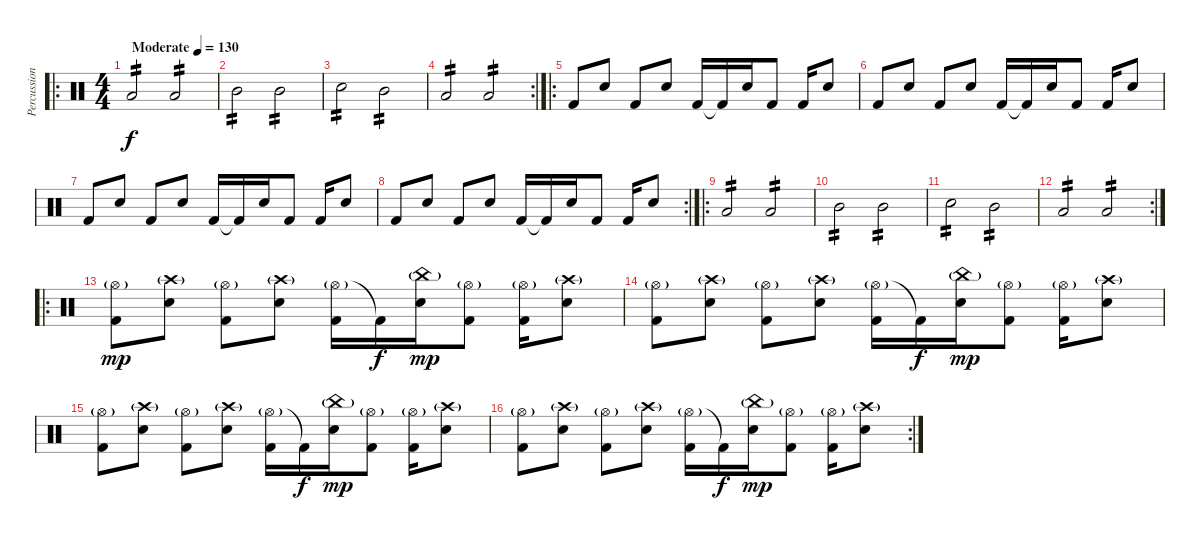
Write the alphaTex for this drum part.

\track ("Percussion" "Percussion") {instrument percussion}
\staff {score}
\articulation defaults
\ro
\ts (4 4)
\tempo (130 "Moderate")
\clef neutral
\ks c "Low Floor Tom (hit)".2{tp 2 dy f} "Low Tom (hit)".2{tp 2}
|
"Mid Tom (hit)".2{tp 2} "Mid Tom (hit)".2{tp 2} |
"Snare (hit) 2".2{tp 2} "Mid Tom (hit)".2{tp 2} |
\rc 2 "Low Tom (hit)".2{tp 2} "Low Floor Tom (hit)".2{tp 2}
|
\ro "Kick (hit) 2".8 "Electric Snare (hit)".8 "Kick (hit) 2".8 "Electric Snare (hit)".8 "Kick (hit) 2".16 "Kick (hit) 2"{t}.16 "Electric Snare (hit)".16 "Kick (hit) 2".8 "Kick (hit) 2".16 "Electric Snare (hit)".8
|
"Kick (hit) 2".8 "Electric Snare (hit)".8 "Kick (hit) 2".8 "Electric Snare (hit)".8 "Kick (hit) 2".16 "Kick (hit) 2"{t}.16 "Electric Snare (hit)".16 "Kick (hit) 2".8 "Kick (hit) 2".16 "Electric Snare (hit)".8 |
"Kick (hit) 2".8 "Electric Snare (hit)".8 "Kick (hit) 2".8 "Electric Snare (hit)".8 "Kick (hit) 2".16 "Kick (hit) 2"{t}.16 "Electric Snare (hit)".16 "Kick (hit) 2".8 "Kick (hit) 2".16 "Electric Snare (hit)".8 |
\rc 2 "Kick (hit) 2".8 "Electric Snare (hit)".8 "Kick (hit) 2".8 "Electric Snare (hit)".8 "Kick (hit) 2".16 "Kick (hit) 2"{t}.16 "Electric Snare (hit)".16 "Kick (hit) 2".8 "Kick (hit) 2".16 "Electric Snare (hit)".8
|
\ro "Low Floor Tom (hit)".2{tp 2} "Low Tom (hit)".2{tp 2}
|
"Mid Tom (hit)".2{tp 2} "Mid Tom (hit)".2{tp 2} |
"Snare (hit) 2".2{tp 2} "Mid Tom (hit)".2{tp 2} |
\rc 2 "Low Tom (hit)".2{tp 2} "Low Floor Tom (hit)".2{tp 2}
|
\ro
("Hi-Hat (open)"{g} "Kick (hit) 2").8{dy mp} ("Crash high (hit)"{g} "Electric Snare (hit)").8 ("Hi-Hat (open)"{g} "Kick (hit) 2").8 ("Crash high (hit)"{g} "Electric Snare (hit)").8 ("Hi-Hat (open)"{g} "Kick (hit) 2").16 "Kick (hit) 2"{t}.16{dy f} ("China (hit)"{g} "Electric Snare (hit)").16{dy mp} ("Hi-Hat (open)"{g} "Kick (hit) 2").8 ("Hi-Hat (open)"{g} "Kick (hit) 2").16 ("Crash high (hit)"{g} "Electric Snare (hit)").8 |
("Hi-Hat (open)"{g} "Kick (hit) 2").8 ("Crash high (hit)"{g} "Electric Snare (hit)").8 ("Hi-Hat (open)"{g} "Kick (hit) 2").8 ("Crash high (hit)"{g} "Electric Snare (hit)").8 ("Hi-Hat (open)"{g} "Kick (hit) 2").16 "Kick (hit) 2"{t}.16{dy f} ("China (hit)"{g} "Electric Snare (hit)").16{dy mp} ("Hi-Hat (open)"{g} "Kick (hit) 2").8 ("Hi-Hat (open)"{g} "Kick (hit) 2").16 ("Crash high (hit)"{g} "Electric Snare (hit)").8 |
("Hi-Hat (open)"{g} "Kick (hit) 2").8 ("Crash high (hit)"{g} "Electric Snare (hit)").8 ("Hi-Hat (open)"{g} "Kick (hit) 2").8 ("Crash high (hit)"{g} "Electric Snare (hit)").8 ("Hi-Hat (open)"{g} "Kick (hit) 2").16 "Kick (hit) 2"{t}.16{dy f} ("China (hit)"{g} "Electric Snare (hit)").16{dy mp} ("Hi-Hat (open)"{g} "Kick (hit) 2").8 ("Hi-Hat (open)"{g} "Kick (hit) 2").16 ("Crash high (hit)"{g} "Electric Snare (hit)").8 |
\rc 2
("Hi-Hat (open)"{g} "Kick (hit) 2").8 ("Crash high (hit)"{g} "Electric Snare (hit)").8 ("Hi-Hat (open)"{g} "Kick (hit) 2").8 ("Crash high (hit)"{g} "Electric Snare (hit)").8 ("Hi-Hat (open)"{g} "Kick (hit) 2").16 "Kick (hit) 2"{t}.16{dy f} ("China (hit)"{g} "Electric Snare (hit)").16{dy mp} ("Hi-Hat (open)"{g} "Kick (hit) 2").8 ("Hi-Hat (open)"{g} "Kick (hit) 2").16 ("Crash high (hit)"{g} "Electric Snare (hit)").8
